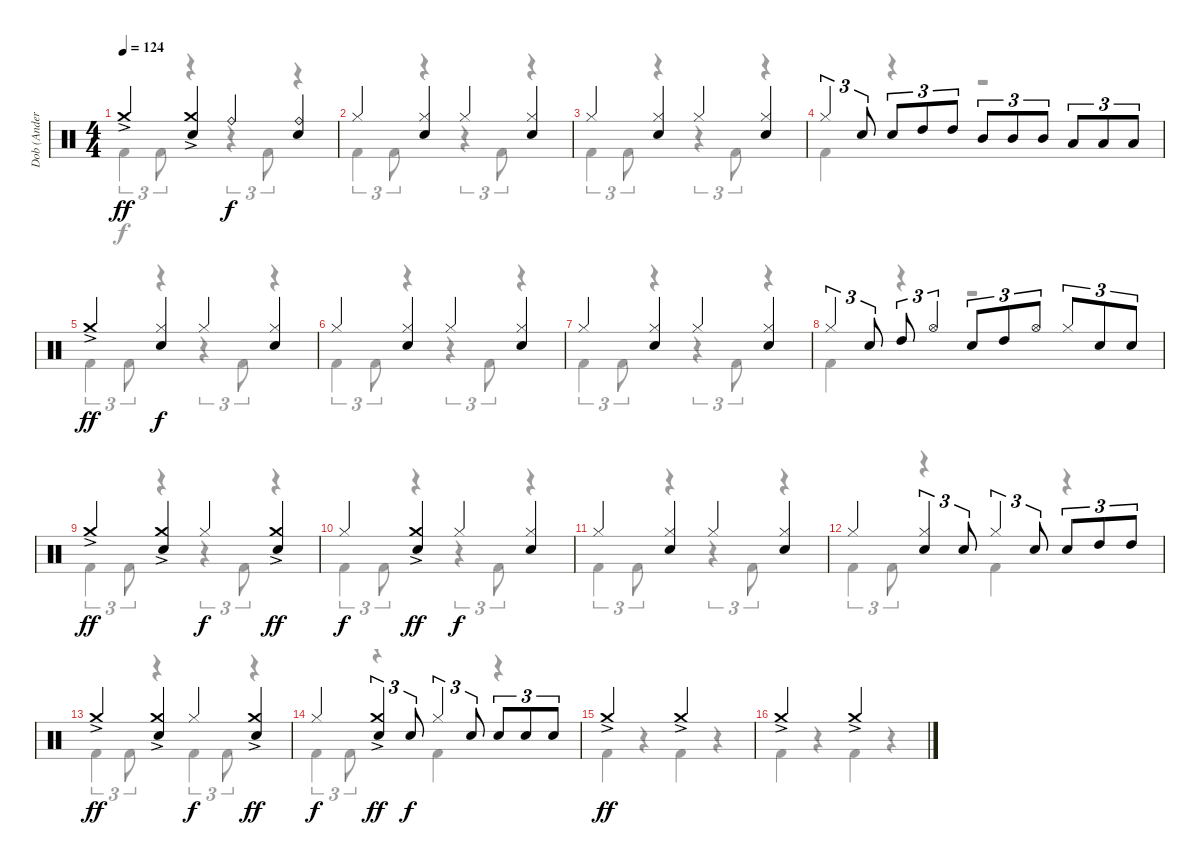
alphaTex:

\track ("Dob (Anders Johansson)" "Dob (Ander") {instrument percussion}
\staff {score}
\articulation defaults
\voice
\ts (4 4)
\tempo 124
\clef neutral
\ks c "Crash medium (hit)"{ac}.4{dy ff}
("Crash medium (hit)"{ac} "Electric Snare (hit)").4 "Ride (bell)".4{dy f} ("Ride (bell)" "Electric Snare (hit)").4 |
"Hi-Hat (closed)".4 ("Hi-Hat (closed)" "Electric Snare (hit)").4 "Hi-Hat (closed)".4 ("Hi-Hat (closed)" "Electric Snare (hit)").4 |
"Hi-Hat (closed)".4 ("Hi-Hat (closed)" "Electric Snare (hit)").4 "Hi-Hat (closed)".4 ("Hi-Hat (closed)" "Electric Snare (hit)").4 |
"Hi-Hat (closed)".4{tu (3 2)} "Electric Snare (hit)".8{tu (3 2)} "Electric Snare (hit)".8{tu (3 2)} "High Tom (hit)".8{tu (3 2)} "High Tom (hit)".8{tu (3 2)} "Mid Tom (hit)".8{tu (3 2)} "Mid Tom (hit)".8{tu (3 2)} "Mid Tom (hit)".8{tu (3 2)} "Low Tom (hit)".8{tu (3 2)} "Low Tom (hit)".8{tu (3 2)} "Low Tom (hit)".8{tu (3 2)} |
"Crash medium (hit)"{ac}.4{dy ff} ("Hi-Hat (closed)" "Electric Snare (hit)").4{dy f} "Hi-Hat (closed)".4 ("Hi-Hat (closed)" "Electric Snare (hit)").4 |
"Hi-Hat (closed)".4 ("Hi-Hat (closed)" "Electric Snare (hit)").4 "Hi-Hat (closed)".4 ("Hi-Hat (closed)" "Electric Snare (hit)").4 |
"Hi-Hat (closed)".4 ("Hi-Hat (closed)" "Electric Snare (hit)").4 "Hi-Hat (closed)".4 ("Hi-Hat (closed)" "Electric Snare (hit)").4 |
"Hi-Hat (closed)".4{tu (3 2)} "Electric Snare (hit)".8{tu (3 2)} "High Tom (hit)".8{tu (3 2)} "Hi-Hat (open)".4{tu (3 2)} "Electric Snare (hit)".8{tu (3 2)} "High Tom (hit)".8{tu (3 2)} "Hi-Hat (open)".8{tu (3 2)} "Hi-Hat (closed)".8{tu (3 2)} "Electric Snare (hit)".8{tu (3 2)} "Electric Snare (hit)".8{tu (3 2)} |
"Crash medium (hit)"{ac}.4{dy ff} ("Crash medium (hit)"{ac} "Electric Snare (hit)").4 "Hi-Hat (closed)".4{dy f} ("Crash medium (hit)"{ac} "Electric Snare (hit)").4{dy ff} |
"Hi-Hat (closed)".4{dy f} ("Crash medium (hit)"{ac} "Electric Snare (hit)").4{dy ff} "Hi-Hat (closed)".4{dy f} ("Hi-Hat (closed)" "Electric Snare (hit)").4 |
"Hi-Hat (closed)".4 ("Hi-Hat (closed)" "Electric Snare (hit)").4 "Hi-Hat (closed)".4 ("Hi-Hat (closed)" "Electric Snare (hit)").4 |
"Hi-Hat (closed)".4 ("Hi-Hat (closed)" "Electric Snare (hit)").4{tu (3 2)} "Electric Snare (hit)".8{tu (3 2)} "Hi-Hat (closed)".4{tu (3 2)} "Electric Snare (hit)".8{tu (3 2)} "Electric Snare (hit)".8{tu (3 2)} "High Tom (hit)".8{tu (3 2)} "High Tom (hit)".8{tu (3 2)} |
"Crash medium (hit)"{ac}.4{dy ff} ("Crash medium (hit)"{ac} "Electric Snare (hit)").4 "Hi-Hat (closed)".4{dy f} ("Crash medium (hit)"{ac} "Electric Snare (hit)").4{dy ff} |
"Hi-Hat (closed)".4{dy f} ("Crash medium (hit)"{ac} "Electric Snare (hit)").4{tu (3 2) dy ff} "Electric Snare (hit)".8{tu (3 2) dy f} "Hi-Hat (closed)".4{tu (3 2)} "Electric Snare (hit)".8{tu (3 2)} "Electric Snare (hit)".8{tu (3 2)} "Electric Snare (hit)".8{tu (3 2)} "Electric Snare (hit)".8{tu (3 2)} |
"Crash medium (hit)"{ac}.2{dy ff} "Crash medium (hit)"{ac}.2 |
"Crash medium (hit)"{ac}.2 "Crash medium (hit)"{ac}.2
\voice
\clef neutral
\ottava regular
\simile none
\ks c "Kick (hit) 2".4{tu (3 2) dy f} "Kick (hit) 2".8{tu (3 2)}
r.4 r.4{tu (3 2)} "Kick (hit) 2".8{tu (3 2)} r.4 |
"Kick (hit) 2".4{tu (3 2)} "Kick (hit) 2".8{tu (3 2)} r.4 r.4{tu (3 2)} "Kick (hit) 2".8{tu (3 2)} r.4 |
"Kick (hit) 2".4{tu (3 2)} "Kick (hit) 2".8{tu (3 2)} r.4 r.4{tu (3 2)} "Kick (hit) 2".8{tu (3 2)} r.4 |
"Kick (hit) 2".4 r.4 r.2 |
"Kick (hit) 2".4{tu (3 2)} "Kick (hit) 2".8{tu (3 2)} r.4 r.4{tu (3 2)} "Kick (hit) 2".8{tu (3 2)} r.4 |
"Kick (hit) 2".4{tu (3 2)} "Kick (hit) 2".8{tu (3 2)} r.4 r.4{tu (3 2)} "Kick (hit) 2".8{tu (3 2)} r.4 |
"Kick (hit) 2".4{tu (3 2)} "Kick (hit) 2".8{tu (3 2)} r.4 r.4{tu (3 2)} "Kick (hit) 2".8{tu (3 2)} r.4 |
"Kick (hit) 2".4 r.4 r.2 |
"Kick (hit) 2".4{tu (3 2)} "Kick (hit) 2".8{tu (3 2)} r.4 r.4{tu (3 2)} "Kick (hit) 2".8{tu (3 2)} r.4 |
"Kick (hit) 2".4{tu (3 2)} "Kick (hit) 2".8{tu (3 2)} r.4 r.4{tu (3 2)} "Kick (hit) 2".8{tu (3 2)} r.4 |
"Kick (hit) 2".4{tu (3 2)} "Kick (hit) 2".8{tu (3 2)} r.4 r.4{tu (3 2)} "Kick (hit) 2".8{tu (3 2)} r.4 |
"Kick (hit) 2".4{tu (3 2)} "Kick (hit) 2".8{tu (3 2)} r.4 "Kick (hit) 2".4 r.4 |
"Kick (hit) 2".4{tu (3 2)} "Kick (hit) 2".8{tu (3 2)} r.4 "Kick (hit) 2".4{tu (3 2)} "Kick (hit) 2".8{tu (3 2)} r.4 |
"Kick (hit) 2".4{tu (3 2)} "Kick (hit) 2".8{tu (3 2)} r.4 "Kick (hit) 2".4 r.4 |
"Kick (hit) 2".4 r.4 "Kick (hit) 2".4 r.4 |
"Kick (hit) 2".4 r.4 "Kick (hit) 2".4 r.4
